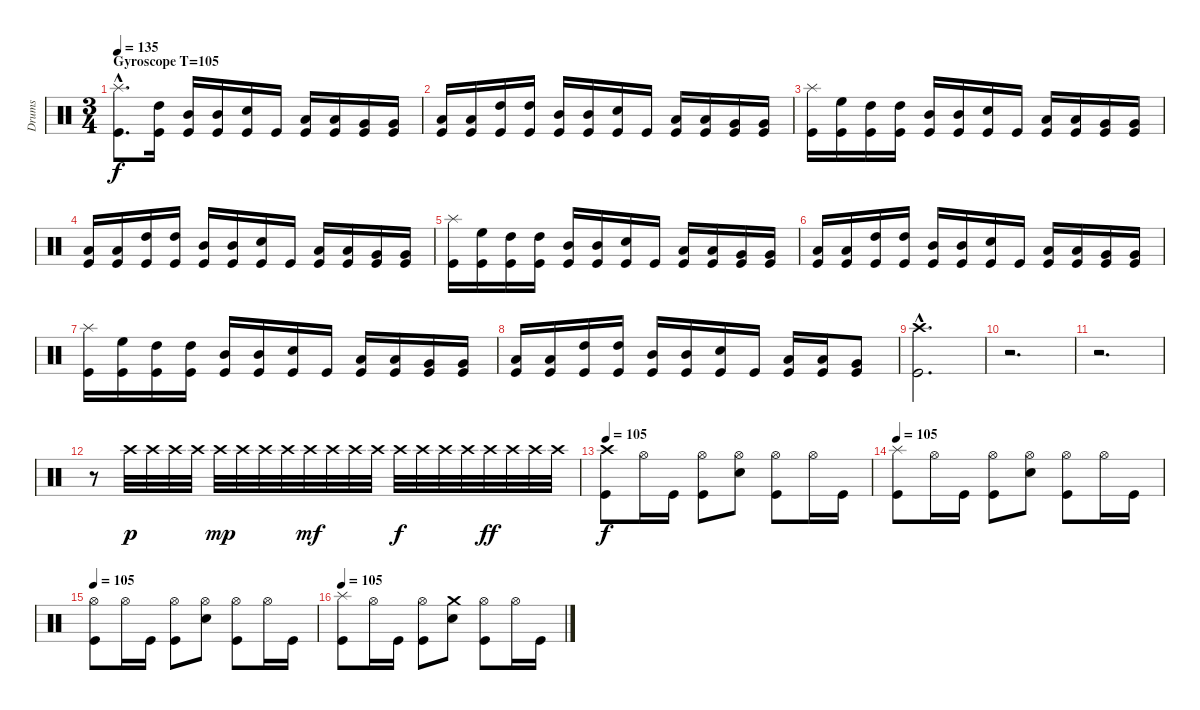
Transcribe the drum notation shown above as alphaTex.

\track ("Drums" "Drums") {instrument percussion}
\staff {score}
\articulation defaults
\ts (3 4)
\section ("" "Gyroscope T=105")
\tempo 135
\tempo 105
\tempo 135
\clef neutral
\ks c
("Splash (hit)"{hac} "Kick (hit)"{hac}).8{d dy f} ("High Tom (hit)" "Kick (hit)").16 ("Mid Tom (hit)" "Kick (hit)").16 ("Mid Tom (hit)" "Kick (hit)").16 ("Electric Snare (hit)" "Kick (hit)").16 "Kick (hit)".16 ("Low Tom (hit)" "Kick (hit)").16 ("Low Tom (hit)" "Kick (hit)").16 ("Very Low Tom (hit)" "Kick (hit)").16 ("Very Low Tom (hit)" "Kick (hit)").16 |
("Low Floor Tom (hit)" "Kick (hit)").16 ("Low Floor Tom (hit)" "Kick (hit)").16 ("High Tom (hit)" "Kick (hit)").16 ("High Tom (hit)" "Kick (hit)").16 ("Mid Tom (hit)" "Kick (hit)").16 ("Mid Tom (hit)" "Kick (hit)").16 ("Electric Snare (hit)" "Kick (hit)").16 "Kick (hit)".16 ("Low Tom (hit)" "Kick (hit)").16 ("Low Tom (hit)" "Kick (hit)").16 ("Very Low Tom (hit)" "Kick (hit)").16 ("Very Low Tom (hit)" "Kick (hit)").16 |
("Splash (hit)" "Kick (hit)").16 ("High Floor Tom (hit)" "Kick (hit)").16 ("High Tom (hit)" "Kick (hit)").16 ("High Tom (hit)" "Kick (hit)").16 ("Mid Tom (hit)" "Kick (hit)").16 ("Mid Tom (hit)" "Kick (hit)").16 ("Electric Snare (hit)" "Kick (hit)").16 "Kick (hit)".16 ("Low Tom (hit)" "Kick (hit)").16 ("Low Tom (hit)" "Kick (hit)").16 ("Very Low Tom (hit)" "Kick (hit)").16 ("Very Low Tom (hit)" "Kick (hit)").16 |
("Low Floor Tom (hit)" "Kick (hit)").16 ("Low Floor Tom (hit)" "Kick (hit)").16 ("High Tom (hit)" "Kick (hit)").16 ("High Tom (hit)" "Kick (hit)").16 ("Mid Tom (hit)" "Kick (hit)").16 ("Mid Tom (hit)" "Kick (hit)").16 ("Electric Snare (hit)" "Kick (hit)").16 "Kick (hit)".16 ("Low Tom (hit)" "Kick (hit)").16 ("Low Tom (hit)" "Kick (hit)").16 ("Very Low Tom (hit)" "Kick (hit)").16 ("Very Low Tom (hit)" "Kick (hit)").16 |
("Splash (hit)" "Kick (hit)").16 ("High Floor Tom (hit)" "Kick (hit)").16 ("High Tom (hit)" "Kick (hit)").16 ("High Tom (hit)" "Kick (hit)").16 ("Mid Tom (hit)" "Kick (hit)").16 ("Mid Tom (hit)" "Kick (hit)").16 ("Electric Snare (hit)" "Kick (hit)").16 "Kick (hit)".16 ("Low Tom (hit)" "Kick (hit)").16 ("Low Tom (hit)" "Kick (hit)").16 ("Very Low Tom (hit)" "Kick (hit)").16 ("Very Low Tom (hit)" "Kick (hit)").16 |
("Low Floor Tom (hit)" "Kick (hit)").16 ("Low Floor Tom (hit)" "Kick (hit)").16 ("High Tom (hit)" "Kick (hit)").16 ("High Tom (hit)" "Kick (hit)").16 ("Mid Tom (hit)" "Kick (hit)").16 ("Mid Tom (hit)" "Kick (hit)").16 ("Electric Snare (hit)" "Kick (hit)").16 "Kick (hit)".16 ("Low Tom (hit)" "Kick (hit)").16 ("Low Tom (hit)" "Kick (hit)").16 ("Very Low Tom (hit)" "Kick (hit)").16 ("Very Low Tom (hit)" "Kick (hit)").16 |
("Splash (hit)" "Kick (hit)").16 ("High Floor Tom (hit)" "Kick (hit)").16 ("High Tom (hit)" "Kick (hit)").16 ("High Tom (hit)" "Kick (hit)").16 ("Mid Tom (hit)" "Kick (hit)").16 ("Mid Tom (hit)" "Kick (hit)").16 ("Electric Snare (hit)" "Kick (hit)").16 "Kick (hit)".16 ("Low Tom (hit)" "Kick (hit)").16 ("Low Tom (hit)" "Kick (hit)").16 ("Very Low Tom (hit)" "Kick (hit)").16 ("Very Low Tom (hit)" "Kick (hit)").16 |
("Low Floor Tom (hit)" "Kick (hit)").16 ("Low Floor Tom (hit)" "Kick (hit)").16 ("High Tom (hit)" "Kick (hit)").16 ("High Tom (hit)" "Kick (hit)").16 ("Mid Tom (hit)" "Kick (hit)").16 ("Mid Tom (hit)" "Kick (hit)").16 ("Electric Snare (hit)" "Kick (hit)").16 "Kick (hit)".16 ("Low Tom (hit)" "Kick (hit)").16 ("Low Tom (hit)" "Kick (hit)").16 ("Very Low Tom (hit)" "Kick (hit)").8 |
("Crash high (hit)"{hac} "Kick (hit)"{hac}).2{d} |
r.2{d} |
r.2{d} |
r.8 "Crash high (hit)".32{dy p} "Crash high (hit)".32 "Crash high (hit)".32 "Crash high (hit)".32 "Crash high (hit)".32{dy mp} "Crash high (hit)".32 "Crash high (hit)".32 "Crash high (hit)".32 "Crash high (hit)".32{dy mf} "Crash high (hit)".32 "Crash high (hit)".32 "Crash high (hit)".32 "Crash high (hit)".32{dy f} "Crash high (hit)".32 "Crash high (hit)".32 "Crash high (hit)".32 "Crash high (hit)".32{dy ff} "Crash high (hit)".32 "Crash high (hit)".32 "Crash high (hit)".32 |
\tempo 105
("Crash high (hit)" "Kick (hit)").8{dy f} "Hi-Hat (open)".16 "Kick (hit)".16 ("Hi-Hat (open)" "Kick (hit)").8 ("Hi-Hat (open)" "Electric Snare (hit)").8 ("Hi-Hat (open)" "Kick (hit)").8 "Hi-Hat (open)".16 "Kick (hit)".16 |
\tempo 105
("Splash (hit)" "Kick (hit)").8 "Hi-Hat (open)".16 "Kick (hit)".16 ("Hi-Hat (open)" "Kick (hit)").8 ("Hi-Hat (open)" "Electric Snare (hit)").8 ("Hi-Hat (open)" "Kick (hit)").8 "Hi-Hat (open)".16 "Kick (hit)".16 |
\tempo 105
("Hi-Hat (open)" "Kick (hit)").8 "Hi-Hat (open)".16 "Kick (hit)".16 ("Hi-Hat (open)" "Kick (hit)").8 ("Hi-Hat (open)" "Electric Snare (hit)").8 ("Hi-Hat (open)" "Kick (hit)").8 "Hi-Hat (open)".16 "Kick (hit)".16 |
\tempo 105
("Splash (hit)" "Kick (hit)").8 "Hi-Hat (open)".16 "Kick (hit)".16 ("Hi-Hat (open)" "Kick (hit)").8 ("Crash medium (hit)" "Electric Snare (hit)").8 ("Hi-Hat (open)" "Kick (hit)").8 "Hi-Hat (open)".16 "Kick (hit)".16
